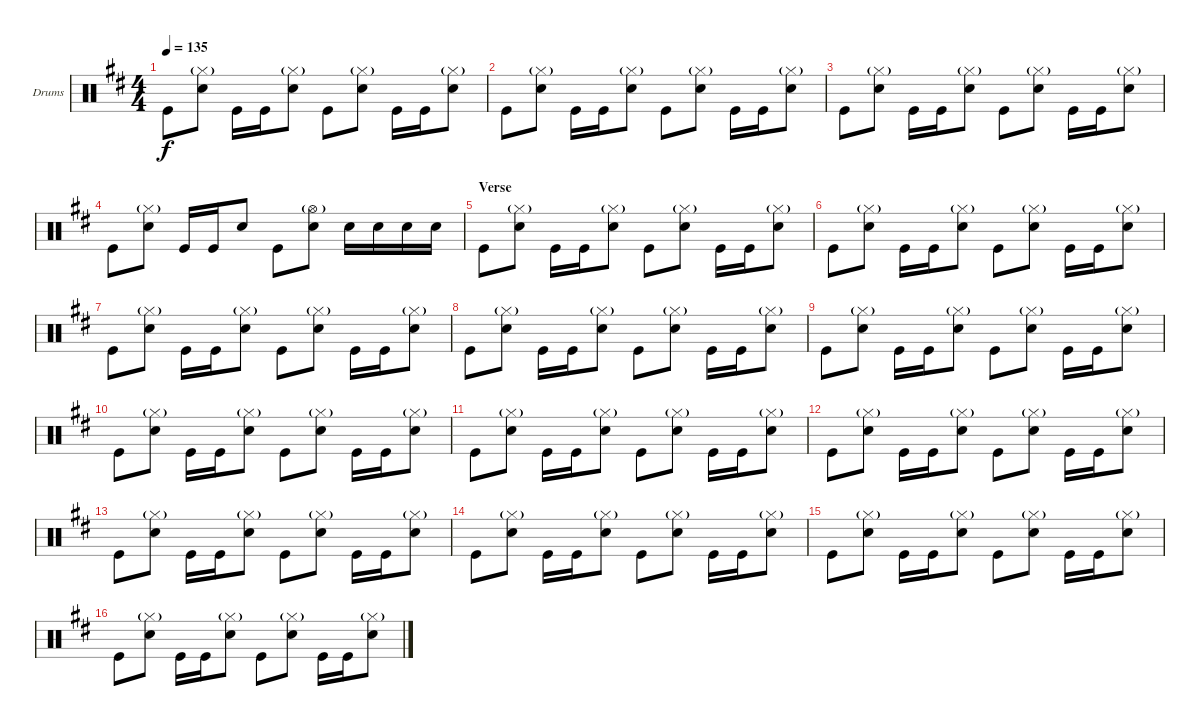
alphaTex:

\defaultSystemsLayout 4
\bracketExtendMode groupsimilarinstruments
\firstSystemTrackNameOrientation horizontal
\otherSystemsTrackNameOrientation horizontal
\track ("Drumkit" "Drums") {instrument percussion}
\staff {score}
\articulation defaults
\ts (4 4)
\tempo 135
\clef neutral
\scale
0.973518
\ks d "Kick (hit)".8{dy f}
("Snare (hit) 2" "Hi-Hat (closed)"{g}).8 "Kick (hit)".16 "Kick (hit)".16 ("Snare (hit) 2" "Hi-Hat (closed)"{g}).8 "Kick (hit)".8 ("Snare (hit) 2" "Hi-Hat (closed)"{g}).8 "Kick (hit)".16 "Kick (hit)".16 ("Snare (hit) 2" "Hi-Hat (closed)"{g}).8 |
\scale
0.973518 "Kick (hit)".8 ("Snare (hit) 2" "Hi-Hat (closed)"{g}).8 "Kick (hit)".16 "Kick (hit)".16 ("Snare (hit) 2" "Hi-Hat (closed)"{g}).8 "Kick (hit)".8 ("Snare (hit) 2" "Hi-Hat (closed)"{g}).8 "Kick (hit)".16 "Kick (hit)".16 ("Snare (hit) 2" "Hi-Hat (closed)"{g}).8 |
\scale
1.05296 "Kick (hit)".8 ("Snare (hit) 2" "Hi-Hat (closed)"{g}).8 "Kick (hit)".16 "Kick (hit)".16 ("Snare (hit) 2" "Hi-Hat (closed)"{g}).8 "Kick (hit)".8 ("Snare (hit) 2" "Hi-Hat (closed)"{g}).8 "Kick (hit)".16 "Kick (hit)".16 ("Snare (hit) 2" "Hi-Hat (closed)"{g}).8 |
\scale
0.973518 "Kick (hit)".8 ("Snare (hit) 2" "Hi-Hat (closed)"{g}).8 "Kick (hit)".16 "Kick (hit)".16 "Snare (hit) 2".8 "Kick (hit)".8 ("Snare (hit) 2" "Hi-Hat (open)"{g}).8 "Snare (hit) 2".16 "Snare (hit) 2".16 "Snare (hit) 2".16 "Snare (hit) 2".16 |
\section ("" "Verse")
\scale
0.973518 "Kick (hit)".8 ("Snare (hit) 2" "Hi-Hat (closed)"{g}).8 "Kick (hit)".16 "Kick (hit)".16 ("Snare (hit) 2" "Hi-Hat (closed)"{g}).8 "Kick (hit)".8 ("Snare (hit) 2" "Hi-Hat (closed)"{g}).8 "Kick (hit)".16 "Kick (hit)".16 ("Snare (hit) 2" "Hi-Hat (closed)"{g}).8 |
\scale
1.05296 "Kick (hit)".8 ("Snare (hit) 2" "Hi-Hat (closed)"{g}).8 "Kick (hit)".16 "Kick (hit)".16 ("Snare (hit) 2" "Hi-Hat (closed)"{g}).8 "Kick (hit)".8 ("Snare (hit) 2" "Hi-Hat (closed)"{g}).8 "Kick (hit)".16 "Kick (hit)".16 ("Snare (hit) 2" "Hi-Hat (closed)"{g}).8 |
\scale
0.973518 "Kick (hit)".8 ("Snare (hit) 2" "Hi-Hat (closed)"{g}).8 "Kick (hit)".16 "Kick (hit)".16 ("Snare (hit) 2" "Hi-Hat (closed)"{g}).8 "Kick (hit)".8 ("Snare (hit) 2" "Hi-Hat (closed)"{g}).8 "Kick (hit)".16 "Kick (hit)".16 ("Snare (hit) 2" "Hi-Hat (closed)"{g}).8 |
\scale
0.973518 "Kick (hit)".8 ("Snare (hit) 2" "Hi-Hat (closed)"{g}).8 "Kick (hit)".16 "Kick (hit)".16 ("Snare (hit) 2" "Hi-Hat (closed)"{g}).8 "Kick (hit)".8 ("Snare (hit) 2" "Hi-Hat (closed)"{g}).8 "Kick (hit)".16 "Kick (hit)".16 ("Snare (hit) 2" "Hi-Hat (closed)"{g}).8 |
\scale
1.05296 "Kick (hit)".8 ("Snare (hit) 2" "Hi-Hat (closed)"{g}).8 "Kick (hit)".16 "Kick (hit)".16 ("Snare (hit) 2" "Hi-Hat (closed)"{g}).8 "Kick (hit)".8 ("Snare (hit) 2" "Hi-Hat (closed)"{g}).8 "Kick (hit)".16 "Kick (hit)".16 ("Snare (hit) 2" "Hi-Hat (closed)"{g}).8 |
\scale
0.973518 "Kick (hit)".8 ("Snare (hit) 2" "Hi-Hat (closed)"{g}).8 "Kick (hit)".16 "Kick (hit)".16 ("Snare (hit) 2" "Hi-Hat (closed)"{g}).8 "Kick (hit)".8 ("Snare (hit) 2" "Hi-Hat (closed)"{g}).8 "Kick (hit)".16 "Kick (hit)".16 ("Snare (hit) 2" "Hi-Hat (closed)"{g}).8 |
\scale
0.973518 "Kick (hit)".8 ("Snare (hit) 2" "Hi-Hat (closed)"{g}).8 "Kick (hit)".16 "Kick (hit)".16 ("Snare (hit) 2" "Hi-Hat (closed)"{g}).8 "Kick (hit)".8 ("Snare (hit) 2" "Hi-Hat (closed)"{g}).8 "Kick (hit)".16 "Kick (hit)".16 ("Snare (hit) 2" "Hi-Hat (closed)"{g}).8 |
\scale
1.05296 "Kick (hit)".8 ("Snare (hit) 2" "Hi-Hat (closed)"{g}).8 "Kick (hit)".16 "Kick (hit)".16 ("Snare (hit) 2" "Hi-Hat (closed)"{g}).8 "Kick (hit)".8 ("Snare (hit) 2" "Hi-Hat (closed)"{g}).8 "Kick (hit)".16 "Kick (hit)".16 ("Snare (hit) 2" "Hi-Hat (closed)"{g}).8 |
\scale
0.973518 "Kick (hit)".8 ("Snare (hit) 2" "Hi-Hat (closed)"{g}).8 "Kick (hit)".16 "Kick (hit)".16 ("Snare (hit) 2" "Hi-Hat (closed)"{g}).8 "Kick (hit)".8 ("Snare (hit) 2" "Hi-Hat (closed)"{g}).8 "Kick (hit)".16 "Kick (hit)".16 ("Snare (hit) 2" "Hi-Hat (closed)"{g}).8 |
\scale
0.973518 "Kick (hit)".8 ("Snare (hit) 2" "Hi-Hat (closed)"{g}).8 "Kick (hit)".16 "Kick (hit)".16 ("Snare (hit) 2" "Hi-Hat (closed)"{g}).8 "Kick (hit)".8 ("Snare (hit) 2" "Hi-Hat (closed)"{g}).8 "Kick (hit)".16 "Kick (hit)".16 ("Snare (hit) 2" "Hi-Hat (closed)"{g}).8 |
\scale
1.05296 "Kick (hit)".8 ("Snare (hit) 2" "Hi-Hat (closed)"{g}).8 "Kick (hit)".16 "Kick (hit)".16 ("Snare (hit) 2" "Hi-Hat (closed)"{g}).8 "Kick (hit)".8 ("Snare (hit) 2" "Hi-Hat (closed)"{g}).8 "Kick (hit)".16 "Kick (hit)".16 ("Snare (hit) 2" "Hi-Hat (closed)"{g}).8 |
\scale
0.973518 "Kick (hit)".8 ("Snare (hit) 2" "Hi-Hat (closed)"{g}).8 "Kick (hit)".16 "Kick (hit)".16 ("Snare (hit) 2" "Hi-Hat (closed)"{g}).8 "Kick (hit)".8 ("Snare (hit) 2" "Hi-Hat (closed)"{g}).8 "Kick (hit)".16 "Kick (hit)".16 ("Snare (hit) 2" "Hi-Hat (closed)"{g}).8
